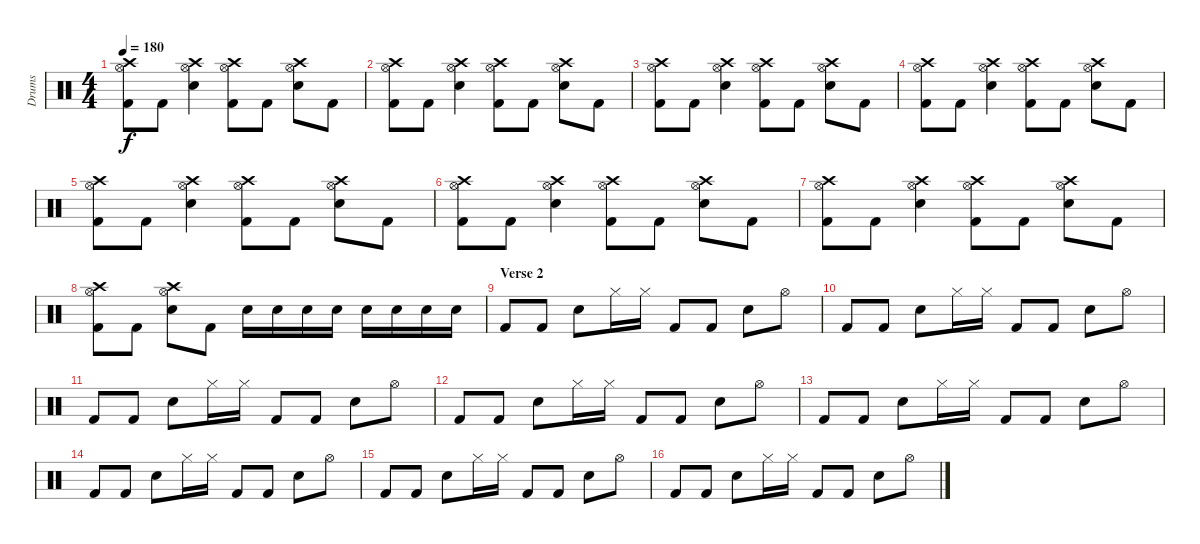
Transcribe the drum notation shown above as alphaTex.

\track ("Drums" "Drums") {instrument percussion}
\staff {score}
\articulation defaults
\ts (4 4)
\tempo 180
\clef neutral
\ks c
("Kick (hit) 2" "Hi-Hat (open)" "Crash high (hit)").8{dy f} "Kick (hit) 2".8 ("Snare (hit) 2" "Hi-Hat (open)" "Crash high (hit)").4 ("Hi-Hat (open)" "Crash high (hit)" "Kick (hit) 2").8 "Kick (hit) 2".8 ("Hi-Hat (open)" "Crash high (hit)" "Snare (hit) 2").8 "Kick (hit) 2".8 |
("Kick (hit) 2" "Hi-Hat (open)" "Crash high (hit)").8 "Kick (hit) 2".8 ("Snare (hit) 2" "Hi-Hat (open)" "Crash high (hit)").4 ("Hi-Hat (open)" "Crash high (hit)" "Kick (hit) 2").8 "Kick (hit) 2".8 ("Hi-Hat (open)" "Crash high (hit)" "Snare (hit) 2").8 "Kick (hit) 2".8 |
("Kick (hit) 2" "Hi-Hat (open)" "Crash high (hit)").8 "Kick (hit) 2".8 ("Snare (hit) 2" "Hi-Hat (open)" "Crash high (hit)").4 ("Hi-Hat (open)" "Crash high (hit)" "Kick (hit) 2").8 "Kick (hit) 2".8 ("Hi-Hat (open)" "Crash high (hit)" "Snare (hit) 2").8 "Kick (hit) 2".8 |
("Kick (hit) 2" "Hi-Hat (open)" "Crash high (hit)").8 "Kick (hit) 2".8 ("Snare (hit) 2" "Hi-Hat (open)" "Crash high (hit)").4 ("Hi-Hat (open)" "Crash high (hit)" "Kick (hit) 2").8 "Kick (hit) 2".8 ("Hi-Hat (open)" "Crash high (hit)" "Snare (hit) 2").8 "Kick (hit) 2".8 |
("Kick (hit) 2" "Hi-Hat (open)" "Crash high (hit)").8 "Kick (hit) 2".8 ("Snare (hit) 2" "Hi-Hat (open)" "Crash high (hit)").4 ("Hi-Hat (open)" "Crash high (hit)" "Kick (hit) 2").8 "Kick (hit) 2".8 ("Hi-Hat (open)" "Crash high (hit)" "Snare (hit) 2").8 "Kick (hit) 2".8 |
("Kick (hit) 2" "Hi-Hat (open)" "Crash high (hit)").8 "Kick (hit) 2".8 ("Snare (hit) 2" "Hi-Hat (open)" "Crash high (hit)").4 ("Hi-Hat (open)" "Crash high (hit)" "Kick (hit) 2").8 "Kick (hit) 2".8 ("Hi-Hat (open)" "Crash high (hit)" "Snare (hit) 2").8 "Kick (hit) 2".8 |
("Kick (hit) 2" "Hi-Hat (open)" "Crash high (hit)").8 "Kick (hit) 2".8 ("Snare (hit) 2" "Hi-Hat (open)" "Crash high (hit)").4 ("Hi-Hat (open)" "Crash high (hit)" "Kick (hit) 2").8 "Kick (hit) 2".8 ("Hi-Hat (open)" "Crash high (hit)" "Snare (hit) 2").8 "Kick (hit) 2".8 |
("Kick (hit) 2" "Hi-Hat (open)" "Crash high (hit)").8 "Kick (hit) 2".8 ("Snare (hit) 2" "Hi-Hat (open)" "Crash high (hit)").8 "Kick (hit) 2".8 "Snare (hit) 2".16 "Snare (hit) 2".16 "Snare (hit) 2".16 "Snare (hit) 2".16 "Snare (hit) 2".16 "Snare (hit) 2".16 "Snare (hit) 2".16 "Snare (hit) 2".16 |
\section ("" "Verse 2")
"Kick (hit) 2".8 "Kick (hit) 2".8 "Snare (hit) 2".8 "Hi-Hat (closed)".16 "Hi-Hat (closed)".16 "Kick (hit) 2".8 "Kick (hit) 2".8 "Snare (hit) 2".8 "Hi-Hat (open)".8 |
"Kick (hit) 2".8 "Kick (hit) 2".8 "Snare (hit) 2".8 "Hi-Hat (closed)".16 "Hi-Hat (closed)".16 "Kick (hit) 2".8 "Kick (hit) 2".8 "Snare (hit) 2".8 "Hi-Hat (open)".8 |
"Kick (hit) 2".8 "Kick (hit) 2".8 "Snare (hit) 2".8 "Hi-Hat (closed)".16 "Hi-Hat (closed)".16 "Kick (hit) 2".8 "Kick (hit) 2".8 "Snare (hit) 2".8 "Hi-Hat (open)".8 |
"Kick (hit) 2".8 "Kick (hit) 2".8 "Snare (hit) 2".8 "Hi-Hat (closed)".16 "Hi-Hat (closed)".16 "Kick (hit) 2".8 "Kick (hit) 2".8 "Snare (hit) 2".8 "Hi-Hat (open)".8 |
"Kick (hit) 2".8 "Kick (hit) 2".8 "Snare (hit) 2".8 "Hi-Hat (closed)".16 "Hi-Hat (closed)".16 "Kick (hit) 2".8 "Kick (hit) 2".8 "Snare (hit) 2".8 "Hi-Hat (open)".8 |
"Kick (hit) 2".8 "Kick (hit) 2".8 "Snare (hit) 2".8 "Hi-Hat (closed)".16 "Hi-Hat (closed)".16 "Kick (hit) 2".8 "Kick (hit) 2".8 "Snare (hit) 2".8 "Hi-Hat (open)".8 |
"Kick (hit) 2".8 "Kick (hit) 2".8 "Snare (hit) 2".8 "Hi-Hat (closed)".16 "Hi-Hat (closed)".16 "Kick (hit) 2".8 "Kick (hit) 2".8 "Snare (hit) 2".8 "Hi-Hat (open)".8 |
"Kick (hit) 2".8 "Kick (hit) 2".8 "Snare (hit) 2".8 "Hi-Hat (closed)".16 "Hi-Hat (closed)".16 "Kick (hit) 2".8 "Kick (hit) 2".8 "Snare (hit) 2".8 "Hi-Hat (open)".8
